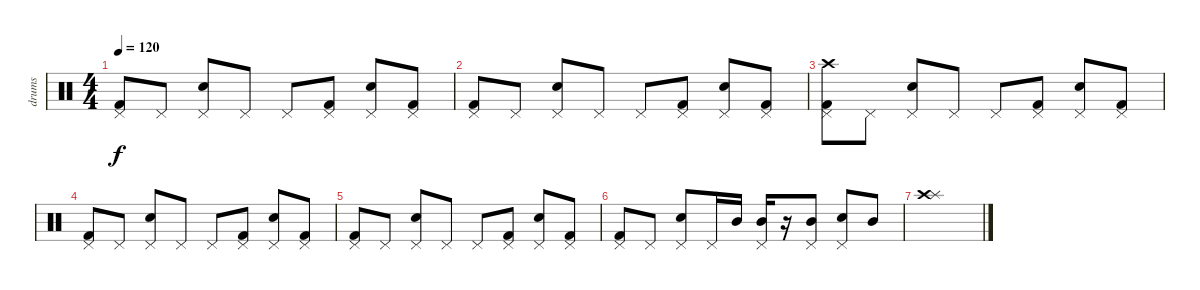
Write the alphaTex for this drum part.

\track ("drums" "drums") {instrument percussion}
\staff {score}
\articulation defaults
\ts (4 4)
\tempo 120
\clef neutral
\ks c
("Kick (hit) 2" "Pedal Hi-Hat (hit)").8{dy f} "Pedal Hi-Hat (hit)".8 ("Snare (hit) 2" "Pedal Hi-Hat (hit)").8 "Pedal Hi-Hat (hit)".8 "Pedal Hi-Hat (hit)".8 ("Kick (hit) 2" "Pedal Hi-Hat (hit)").8 ("Snare (hit) 2" "Pedal Hi-Hat (hit)").8 ("Kick (hit) 2" "Pedal Hi-Hat (hit)").8 |
("Kick (hit) 2" "Pedal Hi-Hat (hit)").8 "Pedal Hi-Hat (hit)".8 ("Snare (hit) 2" "Pedal Hi-Hat (hit)").8 "Pedal Hi-Hat (hit)".8 "Pedal Hi-Hat (hit)".8 ("Kick (hit) 2" "Pedal Hi-Hat (hit)").8 ("Snare (hit) 2" "Pedal Hi-Hat (hit)").8 ("Kick (hit) 2" "Pedal Hi-Hat (hit)").8 |
("Kick (hit) 2" "Pedal Hi-Hat (hit)" "Crash high (hit)").8 "Pedal Hi-Hat (hit)".8 ("Snare (hit) 2" "Pedal Hi-Hat (hit)").8 "Pedal Hi-Hat (hit)".8 "Pedal Hi-Hat (hit)".8 ("Kick (hit) 2" "Pedal Hi-Hat (hit)").8 ("Snare (hit) 2" "Pedal Hi-Hat (hit)").8 ("Kick (hit) 2" "Pedal Hi-Hat (hit)").8 |
("Kick (hit) 2" "Pedal Hi-Hat (hit)").8 "Pedal Hi-Hat (hit)".8 ("Snare (hit) 2" "Pedal Hi-Hat (hit)").8 "Pedal Hi-Hat (hit)".8 "Pedal Hi-Hat (hit)".8 ("Kick (hit) 2" "Pedal Hi-Hat (hit)").8 ("Snare (hit) 2" "Pedal Hi-Hat (hit)").8 ("Kick (hit) 2" "Pedal Hi-Hat (hit)").8 |
("Kick (hit) 2" "Pedal Hi-Hat (hit)").8 "Pedal Hi-Hat (hit)".8 ("Snare (hit) 2" "Pedal Hi-Hat (hit)").8 "Pedal Hi-Hat (hit)".8 "Pedal Hi-Hat (hit)".8 ("Kick (hit) 2" "Pedal Hi-Hat (hit)").8 ("Snare (hit) 2" "Pedal Hi-Hat (hit)").8 ("Kick (hit) 2" "Pedal Hi-Hat (hit)").8 |
("Kick (hit) 2" "Pedal Hi-Hat (hit)").8 "Pedal Hi-Hat (hit)".8 ("Snare (hit) 2" "Pedal Hi-Hat (hit)").8 "Pedal Hi-Hat (hit)".16 "Mid Tom (hit)".16 ("Mid Tom (hit)" "Pedal Hi-Hat (hit)").16 r.16 ("Mid Tom (hit)" "Pedal Hi-Hat (hit)").8 ("Snare (hit) 2" "Pedal Hi-Hat (hit)").8 "Mid Tom (hit)".8 |
("Splash (hit)" "Crash high (hit)").1
